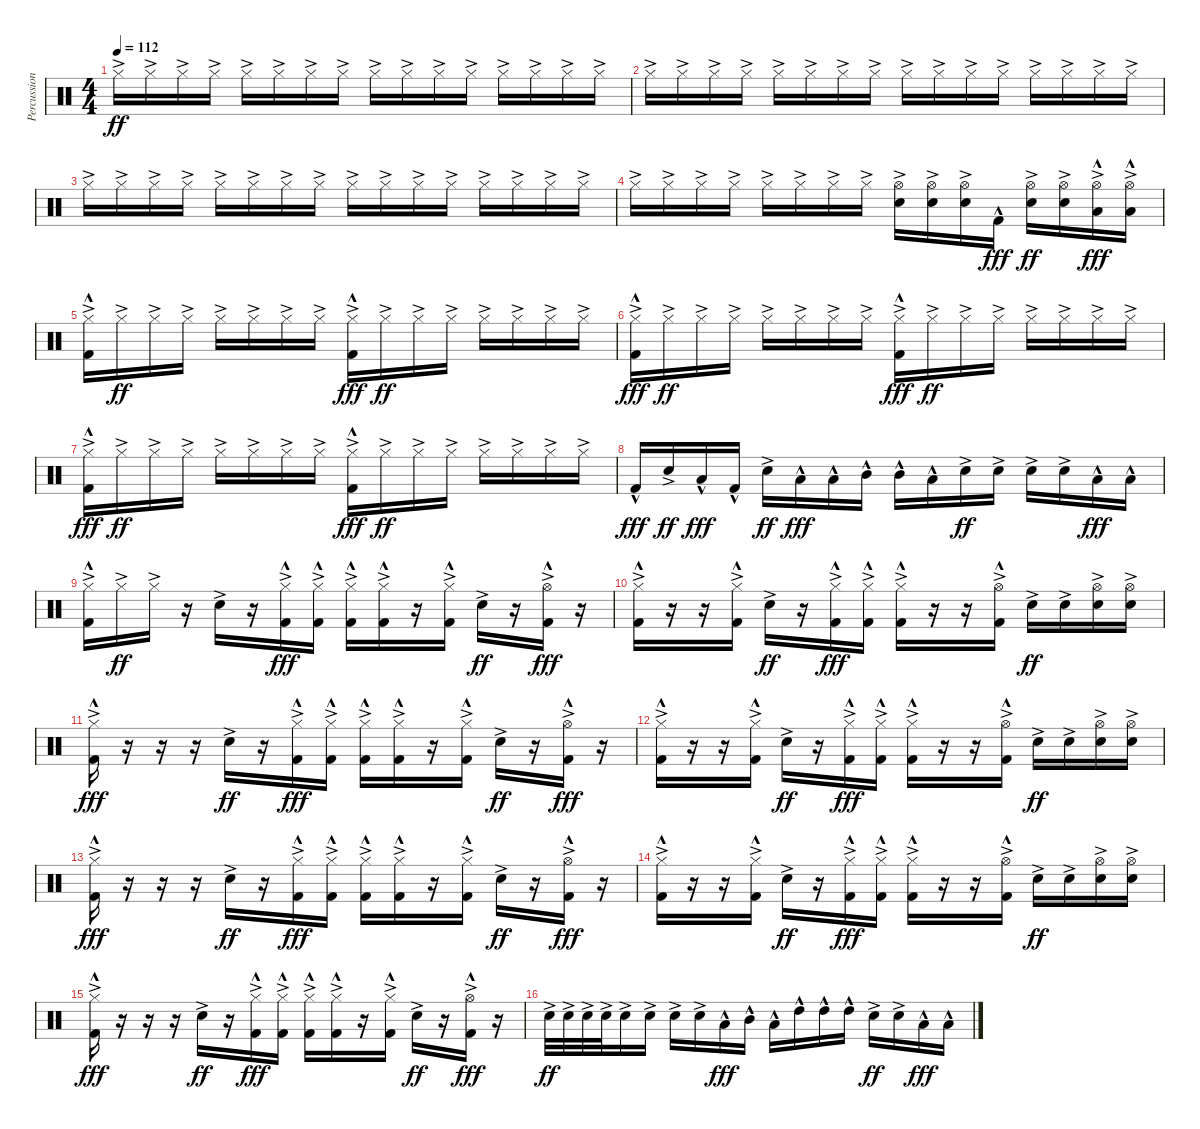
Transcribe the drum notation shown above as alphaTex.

\track ("Percussion" "Percussion") {instrument percussion}
\staff {score}
\articulation defaults
\ts (4 4)
\tempo 112
\clef neutral
\ks c "Hi-Hat (closed)"{ac}.16{dy ff} "Hi-Hat (closed)"{ac}.16 "Hi-Hat (closed)"{ac}.16 "Hi-Hat (closed)"{ac}.16 "Hi-Hat (closed)"{ac}.16 "Hi-Hat (closed)"{ac}.16 "Hi-Hat (closed)"{ac}.16 "Hi-Hat (closed)"{ac}.16 "Hi-Hat (closed)"{ac}.16 "Hi-Hat (closed)"{ac}.16 "Hi-Hat (closed)"{ac}.16 "Hi-Hat (closed)"{ac}.16 "Hi-Hat (closed)"{ac}.16 "Hi-Hat (closed)"{ac}.16 "Hi-Hat (closed)"{ac}.16 "Hi-Hat (closed)"{ac}.16
|
"Hi-Hat (closed)"{ac}.16 "Hi-Hat (closed)"{ac}.16 "Hi-Hat (closed)"{ac}.16 "Hi-Hat (closed)"{ac}.16 "Hi-Hat (closed)"{ac}.16 "Hi-Hat (closed)"{ac}.16 "Hi-Hat (closed)"{ac}.16 "Hi-Hat (closed)"{ac}.16 "Hi-Hat (closed)"{ac}.16 "Hi-Hat (closed)"{ac}.16 "Hi-Hat (closed)"{ac}.16 "Hi-Hat (closed)"{ac}.16 "Hi-Hat (closed)"{ac}.16 "Hi-Hat (closed)"{ac}.16 "Hi-Hat (closed)"{ac}.16 "Hi-Hat (closed)"{ac}.16 |
"Hi-Hat (closed)"{ac}.16 "Hi-Hat (closed)"{ac}.16 "Hi-Hat (closed)"{ac}.16 "Hi-Hat (closed)"{ac}.16 "Hi-Hat (closed)"{ac}.16 "Hi-Hat (closed)"{ac}.16 "Hi-Hat (closed)"{ac}.16 "Hi-Hat (closed)"{ac}.16 "Hi-Hat (closed)"{ac}.16 "Hi-Hat (closed)"{ac}.16 "Hi-Hat (closed)"{ac}.16 "Hi-Hat (closed)"{ac}.16 "Hi-Hat (closed)"{ac}.16 "Hi-Hat (closed)"{ac}.16 "Hi-Hat (closed)"{ac}.16 "Hi-Hat (closed)"{ac}.16 |
"Hi-Hat (closed)"{ac}.16 "Hi-Hat (closed)"{ac}.16 "Hi-Hat (closed)"{ac}.16 "Hi-Hat (closed)"{ac}.16 "Hi-Hat (closed)"{ac}.16 "Hi-Hat (closed)"{ac}.16 "Hi-Hat (closed)"{ac}.16 "Hi-Hat (closed)"{ac}.16 ("Hi-Hat (open)"{ac} "Snare (hit) 2"{ac}).16 ("Hi-Hat (open)"{ac} "Snare (hit) 2"{ac}).16 ("Hi-Hat (open)"{ac} "Snare (hit) 2"{ac}).16 "Kick (hit) 2"{hac}.16{dy fff} ("Hi-Hat (open)"{ac} "Snare (hit) 2"{ac}).16{dy ff} ("Hi-Hat (open)"{ac} "Snare (hit) 2"{ac}).16 ("Hi-Hat (open)"{ac} "Low Tom (hit)"{hac}).16{dy fff} ("Hi-Hat (open)"{ac} "Low Tom (hit)"{hac}).16 |
("Hi-Hat (closed)"{ac} "Kick (hit) 2"{hac}).16 "Hi-Hat (closed)"{ac}.16{dy ff} "Hi-Hat (closed)"{ac}.16 "Hi-Hat (closed)"{ac}.16 "Hi-Hat (closed)"{ac}.16 "Hi-Hat (closed)"{ac}.16 "Hi-Hat (closed)"{ac}.16 "Hi-Hat (closed)"{ac}.16 ("Hi-Hat (closed)"{ac} "Kick (hit) 2"{hac}).16{dy fff} "Hi-Hat (closed)"{ac}.16{dy ff} "Hi-Hat (closed)"{ac}.16 "Hi-Hat (closed)"{ac}.16 "Hi-Hat (closed)"{ac}.16 "Hi-Hat (closed)"{ac}.16 "Hi-Hat (closed)"{ac}.16 "Hi-Hat (closed)"{ac}.16 |
("Hi-Hat (closed)"{ac} "Kick (hit) 2"{hac}).16{dy fff} "Hi-Hat (closed)"{ac}.16{dy ff} "Hi-Hat (closed)"{ac}.16 "Hi-Hat (closed)"{ac}.16 "Hi-Hat (closed)"{ac}.16 "Hi-Hat (closed)"{ac}.16 "Hi-Hat (closed)"{ac}.16 "Hi-Hat (closed)"{ac}.16 ("Hi-Hat (closed)"{ac} "Kick (hit) 2"{hac}).16{dy fff} "Hi-Hat (closed)"{ac}.16{dy ff} "Hi-Hat (closed)"{ac}.16 "Hi-Hat (closed)"{ac}.16 "Hi-Hat (closed)"{ac}.16 "Hi-Hat (closed)"{ac}.16 "Hi-Hat (closed)"{ac}.16 "Hi-Hat (closed)"{ac}.16 |
("Hi-Hat (closed)"{ac} "Kick (hit) 2"{hac}).16{dy fff} "Hi-Hat (closed)"{ac}.16{dy ff} "Hi-Hat (closed)"{ac}.16 "Hi-Hat (closed)"{ac}.16 "Hi-Hat (closed)"{ac}.16 "Hi-Hat (closed)"{ac}.16 "Hi-Hat (closed)"{ac}.16 "Hi-Hat (closed)"{ac}.16 ("Hi-Hat (closed)"{ac} "Kick (hit) 2"{hac}).16{dy fff} "Hi-Hat (closed)"{ac}.16{dy ff} "Hi-Hat (closed)"{ac}.16 "Hi-Hat (closed)"{ac}.16 "Hi-Hat (closed)"{ac}.16 "Hi-Hat (closed)"{ac}.16 "Hi-Hat (closed)"{ac}.16 "Hi-Hat (closed)"{ac}.16 |
"Kick (hit) 2"{hac}.16{dy fff} "Snare (hit) 2"{ac}.16{dy ff} "Low Tom (hit)"{hac}.16{dy fff} "Kick (hit) 2"{hac}.16 "Snare (hit) 2"{ac}.16{dy ff} "Low Tom (hit)"{hac}.16{dy fff} "Low Tom (hit)"{hac}.16 "Mid Tom (hit)"{hac}.16 "Mid Tom (hit)"{hac}.16 "Low Tom (hit)"{hac}.16 "Snare (hit) 2"{ac}.16{dy ff} "Snare (hit) 2"{ac}.16 "Snare (hit) 2"{ac}.16 "Snare (hit) 2"{ac}.16 "Low Tom (hit)"{hac}.16{dy fff} "Low Tom (hit)"{hac}.16 |
("Hi-Hat (closed)"{ac} "Kick (hit) 2"{hac}).16 "Hi-Hat (closed)"{ac}.16{dy ff} "Hi-Hat (closed)"{ac}.16 r.16 "Snare (hit) 2"{ac}.16 r.16 ("Hi-Hat (closed)"{ac} "Kick (hit) 2"{hac}).16{dy fff} ("Hi-Hat (closed)"{ac} "Kick (hit) 2"{hac}).16 ("Hi-Hat (closed)"{ac} "Kick (hit) 2"{hac}).16 ("Hi-Hat (closed)"{ac} "Kick (hit) 2"{hac}).16 r.16 ("Hi-Hat (closed)"{ac} "Kick (hit) 2"{hac}).16 "Snare (hit) 2"{ac}.16{dy ff} r.16 ("Hi-Hat (open)"{ac} "Kick (hit) 2"{hac}).16{dy fff} r.16 |
("Hi-Hat (closed)"{ac} "Kick (hit) 2"{hac}).16 r.16 r.16 ("Hi-Hat (closed)"{ac} "Kick (hit) 2"{hac}).16 "Snare (hit) 2"{ac}.16{dy ff} r.16 ("Hi-Hat (closed)"{ac} "Kick (hit) 2"{hac}).16{dy fff} ("Hi-Hat (closed)"{ac} "Kick (hit) 2"{hac}).16 ("Hi-Hat (closed)"{ac} "Kick (hit) 2"{hac}).16 r.16 r.16 ("Hi-Hat (open)"{ac} "Kick (hit) 2"{hac}).16 "Snare (hit) 2"{ac}.16{dy ff} "Snare (hit) 2"{ac}.16 ("Hi-Hat (open)"{ac} "Snare (hit) 2"{ac}).16 ("Hi-Hat (open)"{ac} "Snare (hit) 2"{ac}).16 |
("Hi-Hat (closed)"{ac} "Kick (hit) 2"{hac}).16{dy fff} r.16 r.16 r.16 "Snare (hit) 2"{ac}.16{dy ff} r.16 ("Hi-Hat (closed)"{ac} "Kick (hit) 2"{hac}).16{dy fff} ("Hi-Hat (closed)"{ac} "Kick (hit) 2"{hac}).16 ("Hi-Hat (closed)"{ac} "Kick (hit) 2"{hac}).16 ("Hi-Hat (closed)"{ac} "Kick (hit) 2"{hac}).16 r.16 ("Hi-Hat (closed)"{ac} "Kick (hit) 2"{hac}).16 "Snare (hit) 2"{ac}.16{dy ff} r.16 ("Hi-Hat (open)"{ac} "Kick (hit) 2"{hac}).16{dy fff} r.16 |
("Hi-Hat (closed)"{ac} "Kick (hit) 2"{hac}).16 r.16 r.16 ("Hi-Hat (closed)"{ac} "Kick (hit) 2"{hac}).16 "Snare (hit) 2"{ac}.16{dy ff} r.16 ("Hi-Hat (closed)"{ac} "Kick (hit) 2"{hac}).16{dy fff} ("Hi-Hat (closed)"{ac} "Kick (hit) 2"{hac}).16 ("Hi-Hat (closed)"{ac} "Kick (hit) 2"{hac}).16 r.16 r.16 ("Hi-Hat (open)"{ac} "Kick (hit) 2"{hac}).16 "Snare (hit) 2"{ac}.16{dy ff} "Snare (hit) 2"{ac}.16 ("Hi-Hat (open)"{ac} "Snare (hit) 2"{ac}).16 ("Hi-Hat (open)"{ac} "Snare (hit) 2"{ac}).16 |
("Hi-Hat (closed)"{ac} "Kick (hit) 2"{hac}).16{dy fff} r.16 r.16 r.16 "Snare (hit) 2"{ac}.16{dy ff} r.16 ("Hi-Hat (closed)"{ac} "Kick (hit) 2"{hac}).16{dy fff} ("Hi-Hat (closed)"{ac} "Kick (hit) 2"{hac}).16 ("Hi-Hat (closed)"{ac} "Kick (hit) 2"{hac}).16 ("Hi-Hat (closed)"{ac} "Kick (hit) 2"{hac}).16 r.16 ("Hi-Hat (closed)"{ac} "Kick (hit) 2"{hac}).16 "Snare (hit) 2"{ac}.16{dy ff} r.16 ("Hi-Hat (open)"{ac} "Kick (hit) 2"{hac}).16{dy fff} r.16 |
("Hi-Hat (closed)"{ac} "Kick (hit) 2"{hac}).16 r.16 r.16 ("Hi-Hat (closed)"{ac} "Kick (hit) 2"{hac}).16 "Snare (hit) 2"{ac}.16{dy ff} r.16 ("Hi-Hat (closed)"{ac} "Kick (hit) 2"{hac}).16{dy fff} ("Hi-Hat (closed)"{ac} "Kick (hit) 2"{hac}).16 ("Hi-Hat (closed)"{ac} "Kick (hit) 2"{hac}).16 r.16 r.16 ("Hi-Hat (open)"{ac} "Kick (hit) 2"{hac}).16 "Snare (hit) 2"{ac}.16{dy ff} "Snare (hit) 2"{ac}.16 ("Hi-Hat (open)"{ac} "Snare (hit) 2"{ac}).16 ("Hi-Hat (open)"{ac} "Snare (hit) 2"{ac}).16 |
("Hi-Hat (closed)"{ac} "Kick (hit) 2"{hac}).16{dy fff} r.16 r.16 r.16 "Snare (hit) 2"{ac}.16{dy ff} r.16 ("Hi-Hat (closed)"{ac} "Kick (hit) 2"{hac}).16{dy fff} ("Hi-Hat (closed)"{ac} "Kick (hit) 2"{hac}).16 ("Hi-Hat (closed)"{ac} "Kick (hit) 2"{hac}).16 ("Hi-Hat (closed)"{ac} "Kick (hit) 2"{hac}).16 r.16 ("Hi-Hat (closed)"{ac} "Kick (hit) 2"{hac}).16 "Snare (hit) 2"{ac}.16{dy ff} r.16 ("Hi-Hat (open)"{ac} "Kick (hit) 2"{hac}).16{dy fff} r.16 |
"Snare (hit) 2"{ac}.32{dy ff} "Snare (hit) 2"{ac}.32 "Snare (hit) 2"{ac}.32 "Snare (hit) 2"{ac}.32 "Snare (hit) 2"{ac}.16 "Snare (hit) 2"{ac}.16 "Snare (hit) 2"{ac}.16 "Snare (hit) 2"{ac}.16 "Low Tom (hit)"{hac}.16{dy fff} "Mid Tom (hit)"{hac}.16 "Low Tom (hit)"{hac}.16 "High Tom (hit)"{hac}.16 "High Tom (hit)"{hac}.16 "High Tom (hit)"{hac}.16 "Snare (hit) 2"{ac}.16{dy ff} "Snare (hit) 2"{ac}.16 "Low Tom (hit)"{hac}.16{dy fff} "Low Tom (hit)"{hac}.16
